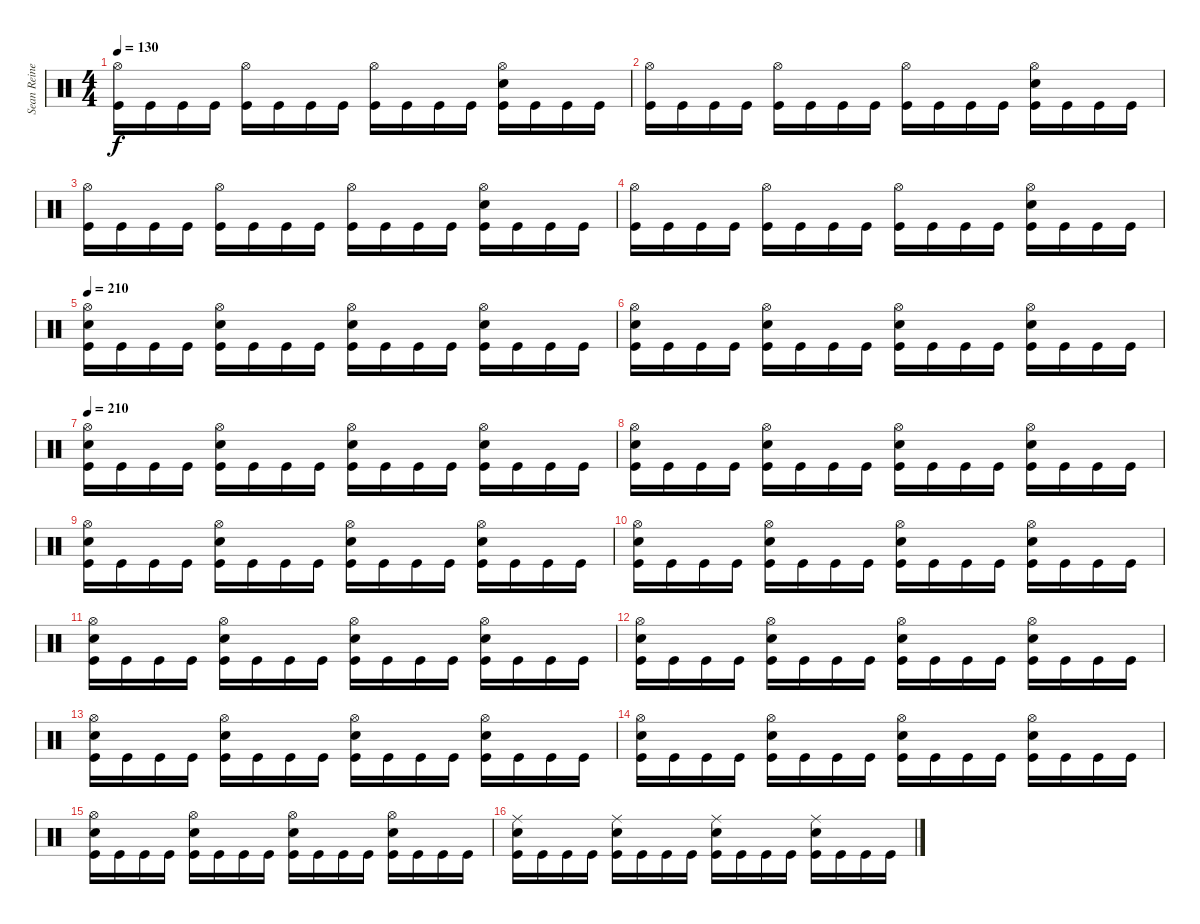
\track ("Sean Reinert" "Sean Reine") {instrument percussion}
\staff {score}
\articulation defaults
\ts (4 4)
\tempo 130
\clef neutral
\ks c
("Hi-Hat (open)" "Kick (hit)").16{dy f} "Kick (hit)".16 "Kick (hit)".16 "Kick (hit)".16 ("Hi-Hat (open)" "Kick (hit)").16 "Kick (hit)".16 "Kick (hit)".16 "Kick (hit)".16 ("Hi-Hat (open)" "Kick (hit)").16 "Kick (hit)".16 "Kick (hit)".16 "Kick (hit)".16 ("Hi-Hat (open)" "Snare (hit) 2" "Kick (hit)").16 "Kick (hit)".16 "Kick (hit)".16 "Kick (hit)".16 |
("Hi-Hat (open)" "Kick (hit)").16 "Kick (hit)".16 "Kick (hit)".16 "Kick (hit)".16 ("Hi-Hat (open)" "Kick (hit)").16 "Kick (hit)".16 "Kick (hit)".16 "Kick (hit)".16 ("Hi-Hat (open)" "Kick (hit)").16 "Kick (hit)".16 "Kick (hit)".16 "Kick (hit)".16 ("Hi-Hat (open)" "Snare (hit) 2" "Kick (hit)").16 "Kick (hit)".16 "Kick (hit)".16 "Kick (hit)".16 |
("Hi-Hat (open)" "Kick (hit)").16 "Kick (hit)".16 "Kick (hit)".16 "Kick (hit)".16 ("Hi-Hat (open)" "Kick (hit)").16 "Kick (hit)".16 "Kick (hit)".16 "Kick (hit)".16 ("Hi-Hat (open)" "Kick (hit)").16 "Kick (hit)".16 "Kick (hit)".16 "Kick (hit)".16 ("Hi-Hat (open)" "Snare (hit) 2" "Kick (hit)").16 "Kick (hit)".16 "Kick (hit)".16 "Kick (hit)".16 |
("Hi-Hat (open)" "Kick (hit)").16 "Kick (hit)".16 "Kick (hit)".16 "Kick (hit)".16 ("Hi-Hat (open)" "Kick (hit)").16 "Kick (hit)".16 "Kick (hit)".16 "Kick (hit)".16 ("Hi-Hat (open)" "Kick (hit)").16 "Kick (hit)".16 "Kick (hit)".16 "Kick (hit)".16 ("Hi-Hat (open)" "Snare (hit) 2" "Kick (hit)").16 "Kick (hit)".16 "Kick (hit)".16 "Kick (hit)".16 |
\tempo 210
("Hi-Hat (open)" "Snare (hit) 2" "Kick (hit)").16 "Kick (hit)".16 "Kick (hit)".16 "Kick (hit)".16 ("Hi-Hat (open)" "Snare (hit) 2" "Kick (hit)").16 "Kick (hit)".16 "Kick (hit)".16 "Kick (hit)".16 ("Hi-Hat (open)" "Snare (hit) 2" "Kick (hit)").16 "Kick (hit)".16 "Kick (hit)".16 "Kick (hit)".16 ("Hi-Hat (open)" "Snare (hit) 2" "Kick (hit)").16 "Kick (hit)".16 "Kick (hit)".16 "Kick (hit)".16 |
("Hi-Hat (open)" "Snare (hit) 2" "Kick (hit)").16 "Kick (hit)".16 "Kick (hit)".16 "Kick (hit)".16 ("Hi-Hat (open)" "Snare (hit) 2" "Kick (hit)").16 "Kick (hit)".16 "Kick (hit)".16 "Kick (hit)".16 ("Hi-Hat (open)" "Snare (hit) 2" "Kick (hit)").16 "Kick (hit)".16 "Kick (hit)".16 "Kick (hit)".16 ("Hi-Hat (open)" "Snare (hit) 2" "Kick (hit)").16 "Kick (hit)".16 "Kick (hit)".16 "Kick (hit)".16 |
\tempo 210
("Hi-Hat (open)" "Snare (hit) 2" "Kick (hit)").16 "Kick (hit)".16 "Kick (hit)".16 "Kick (hit)".16 ("Hi-Hat (open)" "Snare (hit) 2" "Kick (hit)").16 "Kick (hit)".16 "Kick (hit)".16 "Kick (hit)".16 ("Hi-Hat (open)" "Snare (hit) 2" "Kick (hit)").16 "Kick (hit)".16 "Kick (hit)".16 "Kick (hit)".16 ("Hi-Hat (open)" "Snare (hit) 2" "Kick (hit)").16 "Kick (hit)".16 "Kick (hit)".16 "Kick (hit)".16 |
("Hi-Hat (open)" "Snare (hit) 2" "Kick (hit)").16 "Kick (hit)".16 "Kick (hit)".16 "Kick (hit)".16 ("Hi-Hat (open)" "Snare (hit) 2" "Kick (hit)").16 "Kick (hit)".16 "Kick (hit)".16 "Kick (hit)".16 ("Hi-Hat (open)" "Snare (hit) 2" "Kick (hit)").16 "Kick (hit)".16 "Kick (hit)".16 "Kick (hit)".16 ("Hi-Hat (open)" "Snare (hit) 2" "Kick (hit)").16 "Kick (hit)".16 "Kick (hit)".16 "Kick (hit)".16 |
("Hi-Hat (open)" "Snare (hit) 2" "Kick (hit)").16 "Kick (hit)".16 "Kick (hit)".16 "Kick (hit)".16 ("Hi-Hat (open)" "Snare (hit) 2" "Kick (hit)").16 "Kick (hit)".16 "Kick (hit)".16 "Kick (hit)".16 ("Hi-Hat (open)" "Snare (hit) 2" "Kick (hit)").16 "Kick (hit)".16 "Kick (hit)".16 "Kick (hit)".16 ("Hi-Hat (open)" "Snare (hit) 2" "Kick (hit)").16 "Kick (hit)".16 "Kick (hit)".16 "Kick (hit)".16 |
("Hi-Hat (open)" "Snare (hit) 2" "Kick (hit)").16 "Kick (hit)".16 "Kick (hit)".16 "Kick (hit)".16 ("Hi-Hat (open)" "Snare (hit) 2" "Kick (hit)").16 "Kick (hit)".16 "Kick (hit)".16 "Kick (hit)".16 ("Hi-Hat (open)" "Snare (hit) 2" "Kick (hit)").16 "Kick (hit)".16 "Kick (hit)".16 "Kick (hit)".16 ("Hi-Hat (open)" "Snare (hit) 2" "Kick (hit)").16 "Kick (hit)".16 "Kick (hit)".16 "Kick (hit)".16 |
("Hi-Hat (open)" "Snare (hit) 2" "Kick (hit)").16 "Kick (hit)".16 "Kick (hit)".16 "Kick (hit)".16 ("Hi-Hat (open)" "Snare (hit) 2" "Kick (hit)").16 "Kick (hit)".16 "Kick (hit)".16 "Kick (hit)".16 ("Hi-Hat (open)" "Snare (hit) 2" "Kick (hit)").16 "Kick (hit)".16 "Kick (hit)".16 "Kick (hit)".16 ("Hi-Hat (open)" "Snare (hit) 2" "Kick (hit)").16 "Kick (hit)".16 "Kick (hit)".16 "Kick (hit)".16 |
("Hi-Hat (open)" "Snare (hit) 2" "Kick (hit)").16 "Kick (hit)".16 "Kick (hit)".16 "Kick (hit)".16 ("Hi-Hat (open)" "Snare (hit) 2" "Kick (hit)").16 "Kick (hit)".16 "Kick (hit)".16 "Kick (hit)".16 ("Hi-Hat (open)" "Snare (hit) 2" "Kick (hit)").16 "Kick (hit)".16 "Kick (hit)".16 "Kick (hit)".16 ("Hi-Hat (open)" "Snare (hit) 2" "Kick (hit)").16 "Kick (hit)".16 "Kick (hit)".16 "Kick (hit)".16 |
("Hi-Hat (open)" "Snare (hit) 2" "Kick (hit)").16 "Kick (hit)".16 "Kick (hit)".16 "Kick (hit)".16 ("Hi-Hat (open)" "Snare (hit) 2" "Kick (hit)").16 "Kick (hit)".16 "Kick (hit)".16 "Kick (hit)".16 ("Hi-Hat (open)" "Snare (hit) 2" "Kick (hit)").16 "Kick (hit)".16 "Kick (hit)".16 "Kick (hit)".16 ("Hi-Hat (open)" "Snare (hit) 2" "Kick (hit)").16 "Kick (hit)".16 "Kick (hit)".16 "Kick (hit)".16 |
("Hi-Hat (open)" "Snare (hit) 2" "Kick (hit)").16 "Kick (hit)".16 "Kick (hit)".16 "Kick (hit)".16 ("Hi-Hat (open)" "Snare (hit) 2" "Kick (hit)").16 "Kick (hit)".16 "Kick (hit)".16 "Kick (hit)".16 ("Hi-Hat (open)" "Snare (hit) 2" "Kick (hit)").16 "Kick (hit)".16 "Kick (hit)".16 "Kick (hit)".16 ("Hi-Hat (open)" "Snare (hit) 2" "Kick (hit)").16 "Kick (hit)".16 "Kick (hit)".16 "Kick (hit)".16 |
("Hi-Hat (open)" "Snare (hit) 2" "Kick (hit)").16 "Kick (hit)".16 "Kick (hit)".16 "Kick (hit)".16 ("Hi-Hat (open)" "Snare (hit) 2" "Kick (hit)").16 "Kick (hit)".16 "Kick (hit)".16 "Kick (hit)".16 ("Hi-Hat (open)" "Snare (hit) 2" "Kick (hit)").16 "Kick (hit)".16 "Kick (hit)".16 "Kick (hit)".16 ("Hi-Hat (open)" "Snare (hit) 2" "Kick (hit)").16 "Kick (hit)".16 "Kick (hit)".16 "Kick (hit)".16 |
("Ride (middle)" "Snare (hit) 2" "Kick (hit)").16 "Kick (hit)".16 "Kick (hit)".16 "Kick (hit)".16 ("Ride (middle)" "Snare (hit) 2" "Kick (hit)").16 "Kick (hit)".16 "Kick (hit)".16 "Kick (hit)".16 ("Ride (middle)" "Snare (hit) 2" "Kick (hit)").16 "Kick (hit)".16 "Kick (hit)".16 "Kick (hit)".16 ("Ride (middle)" "Snare (hit) 2" "Kick (hit)").16 "Kick (hit)".16 "Kick (hit)".16 "Kick (hit)".16
